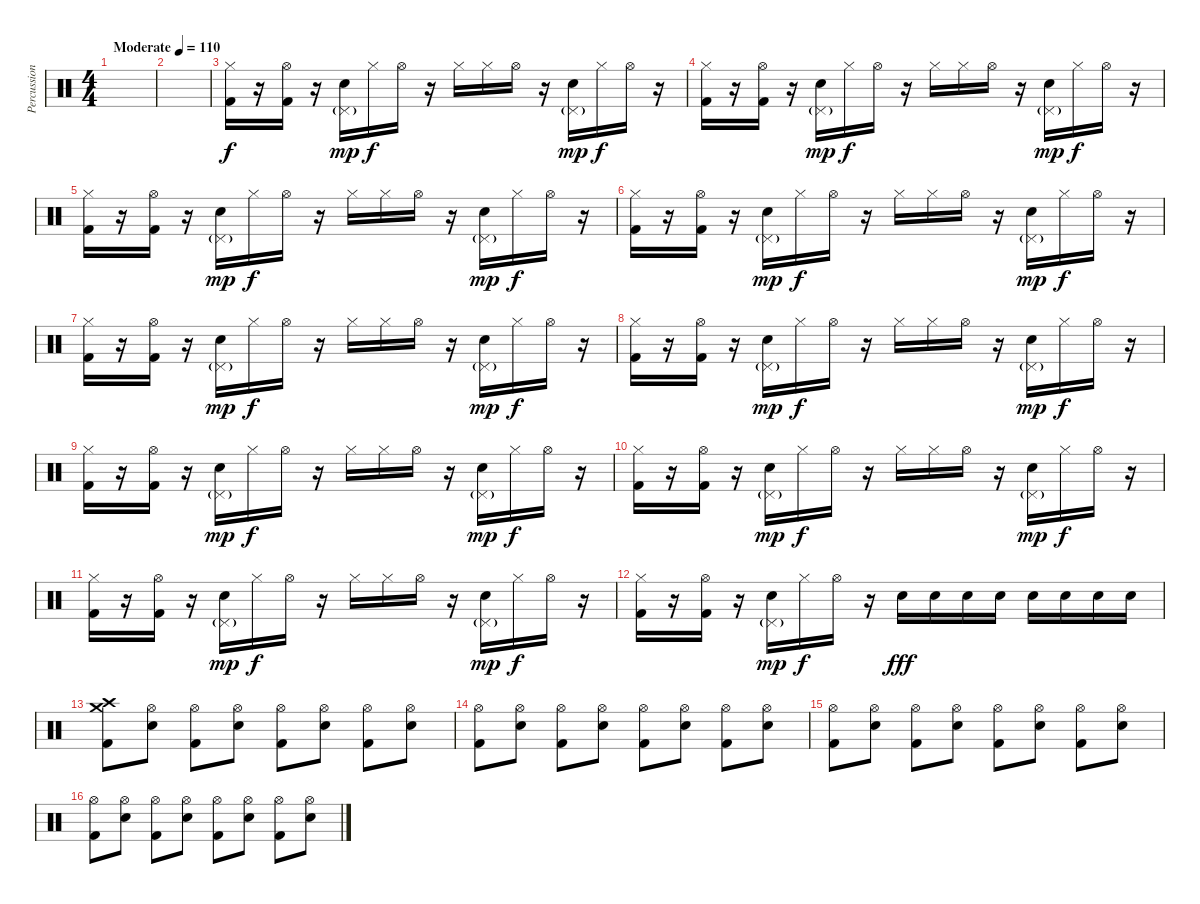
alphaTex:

\track ("Percussion" "Percussion") {instrument percussion}
\staff {score}
\articulation defaults
\ts (4 4)
\tempo (110 "Moderate")
\clef neutral
\ks c
|
|
("Kick (hit) 2" "Hi-Hat (closed)").16 r.16 ("Kick (hit) 2" "Hi-Hat (open)").16 r.16 ("Electric Snare (hit)" "Pedal Hi-Hat (hit)"{g}).16{dy mp} "Hi-Hat (closed)".16{dy f} "Hi-Hat (open)".16 r.16 "Hi-Hat (closed)".16 "Hi-Hat (closed)".16 "Hi-Hat (open)".16 r.16 ("Electric Snare (hit)" "Pedal Hi-Hat (hit)"{g}).16{dy mp} "Hi-Hat (closed)".16{dy f} "Hi-Hat (open)".16 r.16 |
("Kick (hit) 2" "Hi-Hat (closed)").16 r.16 ("Kick (hit) 2" "Hi-Hat (open)").16 r.16 ("Electric Snare (hit)" "Pedal Hi-Hat (hit)"{g}).16{dy mp} "Hi-Hat (closed)".16{dy f} "Hi-Hat (open)".16 r.16 "Hi-Hat (closed)".16 "Hi-Hat (closed)".16 "Hi-Hat (open)".16 r.16 ("Electric Snare (hit)" "Pedal Hi-Hat (hit)"{g}).16{dy mp} "Hi-Hat (closed)".16{dy f} "Hi-Hat (open)".16 r.16 |
("Kick (hit) 2" "Hi-Hat (closed)").16 r.16 ("Kick (hit) 2" "Hi-Hat (open)").16 r.16 ("Electric Snare (hit)" "Pedal Hi-Hat (hit)"{g}).16{dy mp} "Hi-Hat (closed)".16{dy f} "Hi-Hat (open)".16 r.16 "Hi-Hat (closed)".16 "Hi-Hat (closed)".16 "Hi-Hat (open)".16 r.16 ("Electric Snare (hit)" "Pedal Hi-Hat (hit)"{g}).16{dy mp} "Hi-Hat (closed)".16{dy f} "Hi-Hat (open)".16 r.16 |
("Kick (hit) 2" "Hi-Hat (closed)").16 r.16 ("Kick (hit) 2" "Hi-Hat (open)").16 r.16 ("Electric Snare (hit)" "Pedal Hi-Hat (hit)"{g}).16{dy mp} "Hi-Hat (closed)".16{dy f} "Hi-Hat (open)".16 r.16 "Hi-Hat (closed)".16 "Hi-Hat (closed)".16 "Hi-Hat (open)".16 r.16 ("Electric Snare (hit)" "Pedal Hi-Hat (hit)"{g}).16{dy mp} "Hi-Hat (closed)".16{dy f} "Hi-Hat (open)".16 r.16 |
("Kick (hit) 2" "Hi-Hat (closed)").16 r.16 ("Kick (hit) 2" "Hi-Hat (open)").16 r.16 ("Electric Snare (hit)" "Pedal Hi-Hat (hit)"{g}).16{dy mp} "Hi-Hat (closed)".16{dy f} "Hi-Hat (open)".16 r.16 "Hi-Hat (closed)".16 "Hi-Hat (closed)".16 "Hi-Hat (open)".16 r.16 ("Electric Snare (hit)" "Pedal Hi-Hat (hit)"{g}).16{dy mp} "Hi-Hat (closed)".16{dy f} "Hi-Hat (open)".16 r.16 |
("Kick (hit) 2" "Hi-Hat (closed)").16 r.16 ("Kick (hit) 2" "Hi-Hat (open)").16 r.16 ("Electric Snare (hit)" "Pedal Hi-Hat (hit)"{g}).16{dy mp} "Hi-Hat (closed)".16{dy f} "Hi-Hat (open)".16 r.16 "Hi-Hat (closed)".16 "Hi-Hat (closed)".16 "Hi-Hat (open)".16 r.16 ("Electric Snare (hit)" "Pedal Hi-Hat (hit)"{g}).16{dy mp} "Hi-Hat (closed)".16{dy f} "Hi-Hat (open)".16 r.16 |
("Kick (hit) 2" "Hi-Hat (closed)").16 r.16 ("Kick (hit) 2" "Hi-Hat (open)").16 r.16 ("Electric Snare (hit)" "Pedal Hi-Hat (hit)"{g}).16{dy mp} "Hi-Hat (closed)".16{dy f} "Hi-Hat (open)".16 r.16 "Hi-Hat (closed)".16 "Hi-Hat (closed)".16 "Hi-Hat (open)".16 r.16 ("Electric Snare (hit)" "Pedal Hi-Hat (hit)"{g}).16{dy mp} "Hi-Hat (closed)".16{dy f} "Hi-Hat (open)".16 r.16 |
("Kick (hit) 2" "Hi-Hat (closed)").16 r.16 ("Kick (hit) 2" "Hi-Hat (open)").16 r.16 ("Electric Snare (hit)" "Pedal Hi-Hat (hit)"{g}).16{dy mp} "Hi-Hat (closed)".16{dy f} "Hi-Hat (open)".16 r.16 "Hi-Hat (closed)".16 "Hi-Hat (closed)".16 "Hi-Hat (open)".16 r.16 ("Electric Snare (hit)" "Pedal Hi-Hat (hit)"{g}).16{dy mp} "Hi-Hat (closed)".16{dy f} "Hi-Hat (open)".16 r.16 |
("Kick (hit) 2" "Hi-Hat (closed)").16 r.16 ("Kick (hit) 2" "Hi-Hat (open)").16 r.16 ("Electric Snare (hit)" "Pedal Hi-Hat (hit)"{g}).16{dy mp} "Hi-Hat (closed)".16{dy f} "Hi-Hat (open)".16 r.16 "Hi-Hat (closed)".16 "Hi-Hat (closed)".16 "Hi-Hat (open)".16 r.16 ("Electric Snare (hit)" "Pedal Hi-Hat (hit)"{g}).16{dy mp} "Hi-Hat (closed)".16{dy f} "Hi-Hat (open)".16 r.16 |
("Kick (hit) 2" "Hi-Hat (closed)").16 r.16 ("Kick (hit) 2" "Hi-Hat (open)").16 r.16 ("Electric Snare (hit)" "Pedal Hi-Hat (hit)"{g}).16{dy mp} "Hi-Hat (closed)".16{dy f} "Hi-Hat (open)".16 r.16 "Electric Snare (hit)".16{dy fff} "Electric Snare (hit)".16 "Electric Snare (hit)".16 "Electric Snare (hit)".16 "Electric Snare (hit)".16 "Electric Snare (hit)".16 "Electric Snare (hit)".16 "Electric Snare (hit)".16 |
("Kick (hit) 2" "Crash medium (hit)" "Crash high (hit)").8 ("Electric Snare (hit)" "Hi-Hat (open)").8 ("Kick (hit) 2" "Hi-Hat (open)").8 ("Electric Snare (hit)" "Hi-Hat (open)").8 ("Kick (hit) 2" "Hi-Hat (open)").8 ("Electric Snare (hit)" "Hi-Hat (open)").8 ("Kick (hit) 2" "Hi-Hat (open)").8 ("Electric Snare (hit)" "Hi-Hat (open)").8 |
("Kick (hit) 2" "Hi-Hat (open)").8 ("Electric Snare (hit)" "Hi-Hat (open)").8 ("Kick (hit) 2" "Hi-Hat (open)").8 ("Electric Snare (hit)" "Hi-Hat (open)").8 ("Kick (hit) 2" "Hi-Hat (open)").8 ("Electric Snare (hit)" "Hi-Hat (open)").8 ("Kick (hit) 2" "Hi-Hat (open)").8 ("Electric Snare (hit)" "Hi-Hat (open)").8 |
("Kick (hit) 2" "Hi-Hat (open)").8 ("Electric Snare (hit)" "Hi-Hat (open)").8 ("Kick (hit) 2" "Hi-Hat (open)").8 ("Electric Snare (hit)" "Hi-Hat (open)").8 ("Kick (hit) 2" "Hi-Hat (open)").8 ("Electric Snare (hit)" "Hi-Hat (open)").8 ("Kick (hit) 2" "Hi-Hat (open)").8 ("Electric Snare (hit)" "Hi-Hat (open)").8 |
("Kick (hit) 2" "Hi-Hat (open)").8 ("Electric Snare (hit)" "Hi-Hat (open)").8 ("Kick (hit) 2" "Hi-Hat (open)").8 ("Electric Snare (hit)" "Hi-Hat (open)").8 ("Kick (hit) 2" "Hi-Hat (open)").8 ("Electric Snare (hit)" "Hi-Hat (open)").8 ("Kick (hit) 2" "Hi-Hat (open)").8 ("Electric Snare (hit)" "Hi-Hat (open)").8
